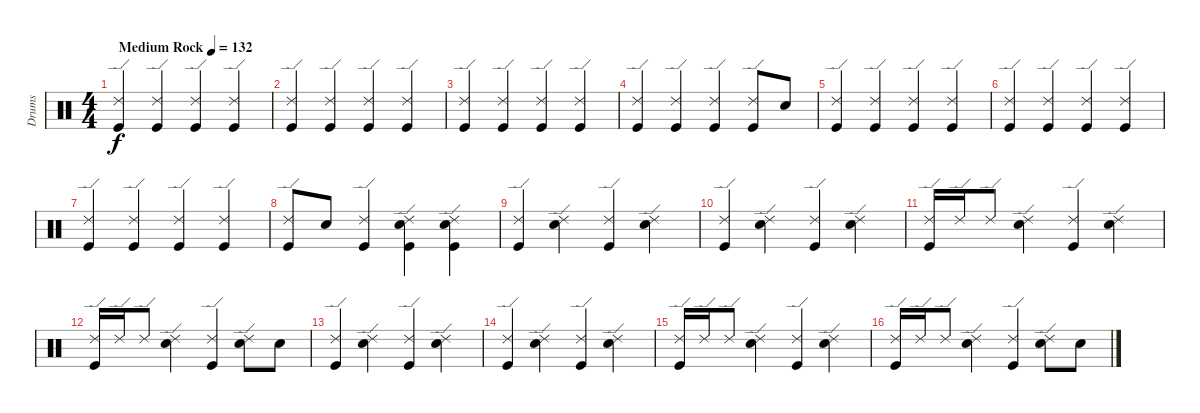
\track ("Drums" "Drums") {instrument percussion}
\staff {score}
\articulation defaults
\ts (4 4)
\tempo (132 "Medium Rock")
\clef neutral
\ks c
("Ride (edge) 2" "Kick (hit)").4{dy f} ("Ride (edge) 2" "Kick (hit)").4 ("Ride (edge) 2" "Kick (hit)").4 ("Ride (edge) 2" "Kick (hit)").4 |
("Ride (edge) 2" "Kick (hit)").4 ("Ride (edge) 2" "Kick (hit)").4 ("Ride (edge) 2" "Kick (hit)").4 ("Ride (edge) 2" "Kick (hit)").4 |
("Ride (edge) 2" "Kick (hit)").4 ("Ride (edge) 2" "Kick (hit)").4 ("Ride (edge) 2" "Kick (hit)").4 ("Ride (edge) 2" "Kick (hit)").4 |
("Ride (edge) 2" "Kick (hit)").4 ("Ride (edge) 2" "Kick (hit)").4 ("Ride (edge) 2" "Kick (hit)").4 ("Ride (edge) 2" "Kick (hit)").8 "Snare (hit) 2".8 |
("Ride (edge) 2" "Kick (hit)").4 ("Ride (edge) 2" "Kick (hit)").4 ("Ride (edge) 2" "Kick (hit)").4 ("Ride (edge) 2" "Kick (hit)").4 |
("Ride (edge) 2" "Kick (hit)").4 ("Ride (edge) 2" "Kick (hit)").4 ("Ride (edge) 2" "Kick (hit)").4 ("Ride (edge) 2" "Kick (hit)").4 |
("Ride (edge) 2" "Kick (hit)").4 ("Ride (edge) 2" "Kick (hit)").4 ("Ride (edge) 2" "Kick (hit)").4 ("Ride (edge) 2" "Kick (hit)").4 |
("Ride (edge) 2" "Kick (hit)").8 "Snare (hit) 2".8 ("Ride (edge) 2" "Kick (hit)").4 ("Ride (edge) 2" "Snare (hit) 2" "Kick (hit)").4 ("Ride (edge) 2" "Snare (hit) 2" "Kick (hit)").4 |
("Ride (edge) 2" "Kick (hit)").4 ("Ride (edge) 2" "Snare (hit) 2").4 ("Ride (edge) 2" "Kick (hit)").4 ("Ride (edge) 2" "Snare (hit) 2").4 |
("Ride (edge) 2" "Kick (hit)").4 ("Ride (edge) 2" "Snare (hit) 2").4 ("Ride (edge) 2" "Kick (hit)").4 ("Ride (edge) 2" "Snare (hit) 2").4 |
("Ride (edge) 2" "Kick (hit)").16 "Ride (edge) 2".16 "Ride (edge) 2".8 ("Ride (edge) 2" "Snare (hit) 2").4 ("Ride (edge) 2" "Kick (hit)").4 ("Ride (edge) 2" "Snare (hit) 2").4 |
("Ride (edge) 2" "Kick (hit)").16 "Ride (edge) 2".16 "Ride (edge) 2".8 ("Ride (edge) 2" "Snare (hit) 2").4 ("Ride (edge) 2" "Kick (hit)").4 ("Ride (edge) 2" "Snare (hit) 2").8 "Snare (hit) 2".8 |
("Ride (edge) 2" "Kick (hit)").4 ("Ride (edge) 2" "Snare (hit) 2").4 ("Ride (edge) 2" "Kick (hit)").4 ("Ride (edge) 2" "Snare (hit) 2").4 |
("Ride (edge) 2" "Kick (hit)").4 ("Ride (edge) 2" "Snare (hit) 2").4 ("Ride (edge) 2" "Kick (hit)").4 ("Ride (edge) 2" "Snare (hit) 2").4 |
("Ride (edge) 2" "Kick (hit)").16 "Ride (edge) 2".16 "Ride (edge) 2".8 ("Ride (edge) 2" "Snare (hit) 2").4 ("Ride (edge) 2" "Kick (hit)").4 ("Ride (edge) 2" "Snare (hit) 2").4 |
("Ride (edge) 2" "Kick (hit)").16 "Ride (edge) 2".16 "Ride (edge) 2".8 ("Ride (edge) 2" "Snare (hit) 2").4 ("Ride (edge) 2" "Kick (hit)").4 ("Ride (edge) 2" "Snare (hit) 2").8 "Snare (hit) 2".8
